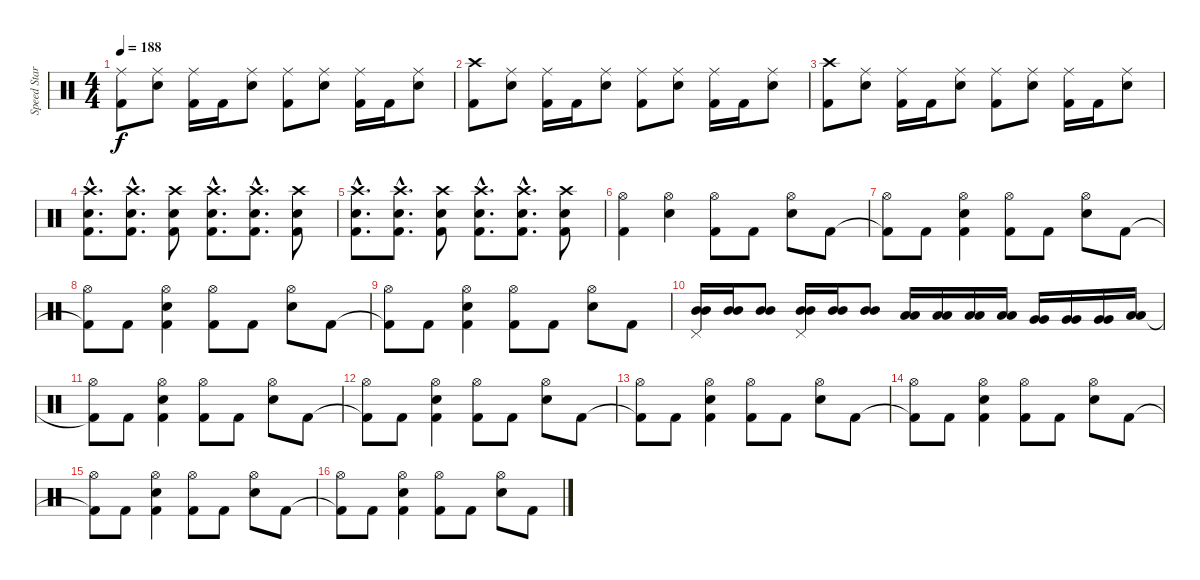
\track ("Speed Star Sypan Joe" "Speed Star") {instrument percussion}
\staff {score}
\articulation defaults
\ts (4 4)
\tempo 188
\clef neutral
\ks c
("Kick (hit) 2" "Ride (middle)").8{dy f} ("Electric Snare (hit)" "Ride (middle)").8 ("Kick (hit) 2" "Ride (middle)").16 "Kick (hit) 2".16 ("Electric Snare (hit)" "Ride (middle)").8 ("Kick (hit) 2" "Ride (middle)").8 ("Electric Snare (hit)" "Ride (middle)").8 ("Kick (hit) 2" "Ride (middle)").16 "Kick (hit) 2".16 ("Electric Snare (hit)" "Ride (middle)").8 |
("Kick (hit) 2" "Crash high (hit)").8 ("Electric Snare (hit)" "Ride (middle)").8 ("Kick (hit) 2" "Ride (middle)").16 "Kick (hit) 2".16 ("Electric Snare (hit)" "Ride (middle)").8 ("Kick (hit) 2" "Ride (middle)").8 ("Electric Snare (hit)" "Ride (middle)").8 ("Kick (hit) 2" "Ride (middle)").16 "Kick (hit) 2".16 ("Electric Snare (hit)" "Ride (middle)").8 |
("Kick (hit) 2" "Crash high (hit)").8 ("Electric Snare (hit)" "Ride (middle)").8 ("Kick (hit) 2" "Ride (middle)").16 "Kick (hit) 2".16 ("Electric Snare (hit)" "Ride (middle)").8 ("Kick (hit) 2" "Ride (middle)").8 ("Electric Snare (hit)" "Ride (middle)").8 ("Kick (hit) 2" "Ride (middle)").16 "Kick (hit) 2".16 ("Electric Snare (hit)" "Ride (middle)").8 |
("Kick (hit) 2"{hac} "Electric Snare (hit)"{hac} "Crash high (hit)"{hac}).8{d} ("Kick (hit) 2"{hac} "Electric Snare (hit)"{hac} "Crash high (hit)"{hac}).8{d} ("Kick (hit) 2" "Electric Snare (hit)" "Crash high (hit)").8 ("Kick (hit) 2"{hac} "Electric Snare (hit)"{hac} "Crash high (hit)"{hac}).8{d} ("Kick (hit) 2"{hac} "Electric Snare (hit)"{hac} "Crash high (hit)"{hac}).8{d} ("Kick (hit) 2" "Electric Snare (hit)" "Crash high (hit)").8 |
("Kick (hit) 2"{hac} "Electric Snare (hit)"{hac} "Crash high (hit)"{hac}).8{d} ("Kick (hit) 2"{hac} "Electric Snare (hit)"{hac} "Crash high (hit)"{hac}).8{d} ("Kick (hit) 2" "Electric Snare (hit)" "Crash high (hit)").8 ("Kick (hit) 2"{hac} "Electric Snare (hit)"{hac} "Crash high (hit)"{hac}).8{d} ("Kick (hit) 2"{hac} "Electric Snare (hit)"{hac} "Crash high (hit)"{hac}).8{d} ("Kick (hit) 2" "Electric Snare (hit)" "Crash high (hit)").8 |
("Kick (hit) 2" "Hi-Hat (open)").4 ("Electric Snare (hit)" "Hi-Hat (open)").4 ("Kick (hit) 2" "Hi-Hat (open)").8 "Kick (hit) 2".8 ("Electric Snare (hit)" "Hi-Hat (open)").8 "Kick (hit) 2".8 |
("Kick (hit) 2"{t} "Hi-Hat (open)").8 "Kick (hit) 2".8 ("Kick (hit) 2" "Electric Snare (hit)" "Hi-Hat (open)").4 ("Kick (hit) 2" "Hi-Hat (open)").8 "Kick (hit) 2".8 ("Electric Snare (hit)" "Hi-Hat (open)").8 "Kick (hit) 2".8 |
("Kick (hit) 2"{t} "Hi-Hat (open)").8 "Kick (hit) 2".8 ("Kick (hit) 2" "Electric Snare (hit)" "Hi-Hat (open)").4 ("Kick (hit) 2" "Hi-Hat (open)").8 "Kick (hit) 2".8 ("Electric Snare (hit)" "Hi-Hat (open)").8 "Kick (hit) 2".8 |
("Kick (hit) 2"{t} "Hi-Hat (open)").8 "Kick (hit) 2".8 ("Kick (hit) 2" "Electric Snare (hit)" "Hi-Hat (open)").4 ("Kick (hit) 2" "Hi-Hat (open)").8 "Kick (hit) 2".8 ("Electric Snare (hit)" "Hi-Hat (open)").8 "Kick (hit) 2".8 |
("Mid Tom (hit)" "Mid Tom (hit)" "Pedal Hi-Hat (hit)").16 ("Mid Tom (hit)" "Mid Tom (hit)").16 ("Mid Tom (hit)" "Mid Tom (hit)").8 ("Mid Tom (hit)" "Mid Tom (hit)" "Pedal Hi-Hat (hit)").16 ("Mid Tom (hit)" "Mid Tom (hit)").16 ("Mid Tom (hit)" "Mid Tom (hit)").8 ("Low Tom (hit)" "Low Tom (hit)").16 ("Low Tom (hit)" "Low Tom (hit)").16 ("Low Tom (hit)" "Low Tom (hit)").16 ("Low Tom (hit)" "Low Tom (hit)").16 ("Very Low Tom (hit)" "Very Low Tom (hit)").16 ("Very Low Tom (hit)" "Very Low Tom (hit)").16 ("Very Low Tom (hit)" "Very Low Tom (hit)").16 ("Low Floor Tom (hit)" "Low Floor Tom (hit)").16 |
("Kick (hit) 2"{t} "Hi-Hat (open)").8 "Kick (hit) 2".8 ("Kick (hit) 2" "Electric Snare (hit)" "Hi-Hat (open)").4 ("Kick (hit) 2" "Hi-Hat (open)").8 "Kick (hit) 2".8 ("Electric Snare (hit)" "Hi-Hat (open)").8 "Kick (hit) 2".8 |
("Kick (hit) 2"{t} "Hi-Hat (open)").8 "Kick (hit) 2".8 ("Kick (hit) 2" "Electric Snare (hit)" "Hi-Hat (open)").4 ("Kick (hit) 2" "Hi-Hat (open)").8 "Kick (hit) 2".8 ("Electric Snare (hit)" "Hi-Hat (open)").8 "Kick (hit) 2".8 |
("Kick (hit) 2"{t} "Hi-Hat (open)").8 "Kick (hit) 2".8 ("Kick (hit) 2" "Electric Snare (hit)" "Hi-Hat (open)").4 ("Kick (hit) 2" "Hi-Hat (open)").8 "Kick (hit) 2".8 ("Electric Snare (hit)" "Hi-Hat (open)").8 "Kick (hit) 2".8 |
("Kick (hit) 2"{t} "Hi-Hat (open)").8 "Kick (hit) 2".8 ("Kick (hit) 2" "Electric Snare (hit)" "Hi-Hat (open)").4 ("Kick (hit) 2" "Hi-Hat (open)").8 "Kick (hit) 2".8 ("Electric Snare (hit)" "Hi-Hat (open)").8 "Kick (hit) 2".8 |
("Kick (hit) 2"{t} "Hi-Hat (open)").8 "Kick (hit) 2".8 ("Kick (hit) 2" "Electric Snare (hit)" "Hi-Hat (open)").4 ("Kick (hit) 2" "Hi-Hat (open)").8 "Kick (hit) 2".8 ("Electric Snare (hit)" "Hi-Hat (open)").8 "Kick (hit) 2".8 |
("Kick (hit) 2"{t} "Hi-Hat (open)").8 "Kick (hit) 2".8 ("Kick (hit) 2" "Electric Snare (hit)" "Hi-Hat (open)").4 ("Kick (hit) 2" "Hi-Hat (open)").8 "Kick (hit) 2".8 ("Electric Snare (hit)" "Hi-Hat (open)").8 "Kick (hit) 2".8
